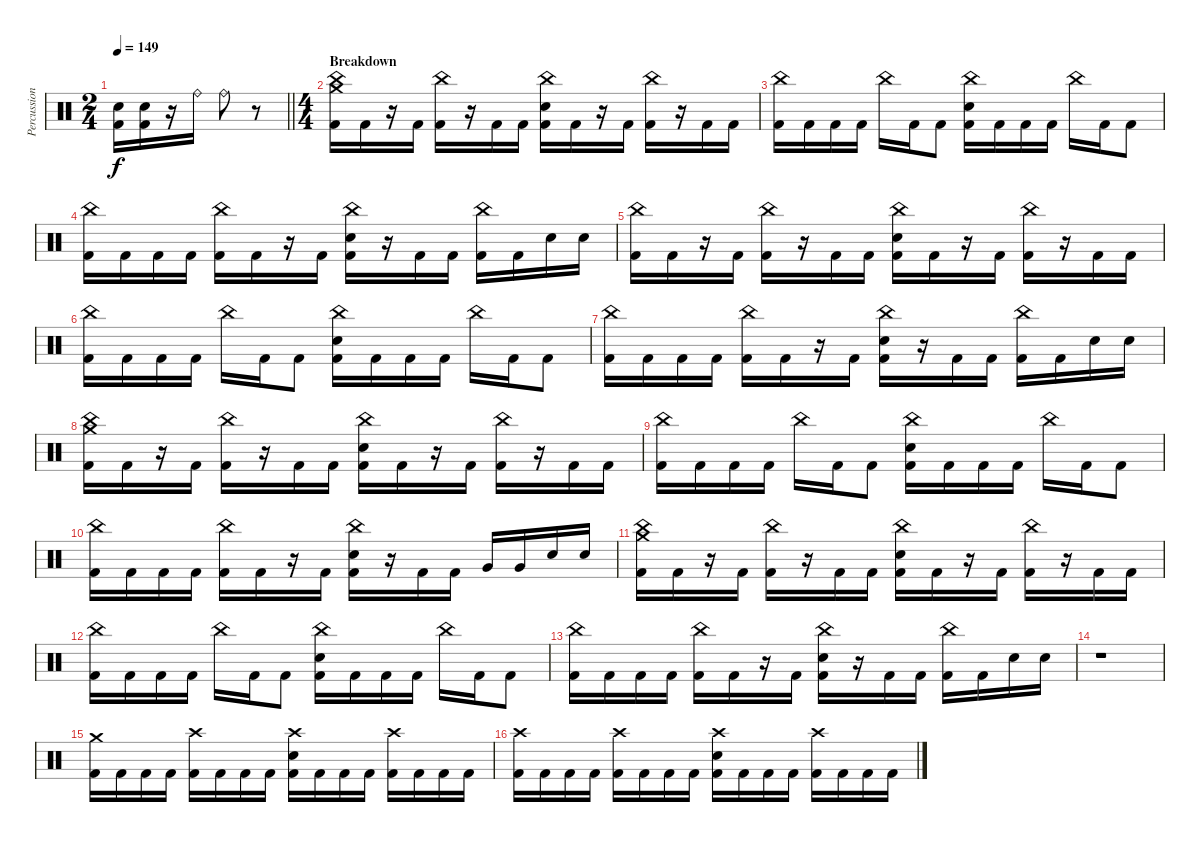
\track ("Percussions" "Percussion") {instrument percussion}
\staff {score}
\articulation defaults
\ts (2 4)
\tempo 149
\clef neutral
\barLineRight lightlight
\ks c
("Snare (hit) 2" "Kick (hit) 2").16{dy f} ("Snare (hit) 2" "Kick (hit) 2").16 r.16 "Ride (bell)".16 "Ride (bell)".8 r.8 |
\ts (4 4)
\section ("" "Breakdown")
("China (hit)" "Crash medium (hit)" "Kick (hit) 2").16 "Kick (hit) 2".16 r.16 "Kick (hit) 2".16 ("China (hit)" "Kick (hit) 2").16 r.16 "Kick (hit) 2".16 "Kick (hit) 2".16 ("China (hit)" "Snare (hit) 2" "Kick (hit) 2").16 "Kick (hit) 2".16 r.16 "Kick (hit) 2".16 ("China (hit)" "Kick (hit) 2").16 r.16 "Kick (hit) 2".16 "Kick (hit) 2".16 |
("China (hit)" "Kick (hit) 2").16 "Kick (hit) 2".16 "Kick (hit) 2".16 "Kick (hit) 2".16 "China (hit)".16 "Kick (hit) 2".16 "Kick (hit) 2".8 ("China (hit)" "Snare (hit) 2" "Kick (hit) 2").16 "Kick (hit) 2".16 "Kick (hit) 2".16 "Kick (hit) 2".16 "China (hit)".16 "Kick (hit) 2".16 "Kick (hit) 2".8 |
("China (hit)" "Kick (hit) 2").16 "Kick (hit) 2".16 "Kick (hit) 2".16 "Kick (hit) 2".16 ("China (hit)" "Kick (hit) 2").16 "Kick (hit) 2".16 r.16 "Kick (hit) 2".16 ("China (hit)" "Snare (hit) 2" "Kick (hit) 2").16 r.16 "Kick (hit) 2".16 "Kick (hit) 2".16 ("China (hit)" "Kick (hit) 2").16 "Kick (hit) 2".16 "Snare (hit) 2".16 "Snare (hit) 2".16 |
("China (hit)" "Kick (hit) 2").16 "Kick (hit) 2".16 r.16 "Kick (hit) 2".16 ("China (hit)" "Kick (hit) 2").16 r.16 "Kick (hit) 2".16 "Kick (hit) 2".16 ("China (hit)" "Snare (hit) 2" "Kick (hit) 2").16 "Kick (hit) 2".16 r.16 "Kick (hit) 2".16 ("China (hit)" "Kick (hit) 2").16 r.16 "Kick (hit) 2".16 "Kick (hit) 2".16 |
("China (hit)" "Kick (hit) 2").16 "Kick (hit) 2".16 "Kick (hit) 2".16 "Kick (hit) 2".16 "China (hit)".16 "Kick (hit) 2".16 "Kick (hit) 2".8 ("China (hit)" "Snare (hit) 2" "Kick (hit) 2").16 "Kick (hit) 2".16 "Kick (hit) 2".16 "Kick (hit) 2".16 "China (hit)".16 "Kick (hit) 2".16 "Kick (hit) 2".8 |
("China (hit)" "Kick (hit) 2").16 "Kick (hit) 2".16 "Kick (hit) 2".16 "Kick (hit) 2".16 ("China (hit)" "Kick (hit) 2").16 "Kick (hit) 2".16 r.16 "Kick (hit) 2".16 ("China (hit)" "Snare (hit) 2" "Kick (hit) 2").16 r.16 "Kick (hit) 2".16 "Kick (hit) 2".16 ("China (hit)" "Kick (hit) 2").16 "Kick (hit) 2".16 "Snare (hit) 2".16 "Snare (hit) 2".16 |
("China (hit)" "Crash medium (hit)" "Kick (hit) 2").16 "Kick (hit) 2".16 r.16 "Kick (hit) 2".16 ("China (hit)" "Kick (hit) 2").16 r.16 "Kick (hit) 2".16 "Kick (hit) 2".16 ("China (hit)" "Snare (hit) 2" "Kick (hit) 2").16 "Kick (hit) 2".16 r.16 "Kick (hit) 2".16 ("China (hit)" "Kick (hit) 2").16 r.16 "Kick (hit) 2".16 "Kick (hit) 2".16 |
("China (hit)" "Kick (hit) 2").16 "Kick (hit) 2".16 "Kick (hit) 2".16 "Kick (hit) 2".16 "China (hit)".16 "Kick (hit) 2".16 "Kick (hit) 2".8 ("China (hit)" "Snare (hit) 2" "Kick (hit) 2").16 "Kick (hit) 2".16 "Kick (hit) 2".16 "Kick (hit) 2".16 "China (hit)".16 "Kick (hit) 2".16 "Kick (hit) 2".8 |
("China (hit)" "Kick (hit) 2").16 "Kick (hit) 2".16 "Kick (hit) 2".16 "Kick (hit) 2".16 ("China (hit)" "Kick (hit) 2").16 "Kick (hit) 2".16 r.16 "Kick (hit) 2".16 ("China (hit)" "Snare (hit) 2" "Kick (hit) 2").16 r.16 "Kick (hit) 2".16 "Kick (hit) 2".16 "Very Low Tom (hit)".16 "Very Low Tom (hit)".16 "Snare (hit) 2".16 "Snare (hit) 2".16 |
("China (hit)" "Crash medium (hit)" "Kick (hit) 2").16 "Kick (hit) 2".16 r.16 "Kick (hit) 2".16 ("China (hit)" "Kick (hit) 2").16 r.16 "Kick (hit) 2".16 "Kick (hit) 2".16 ("China (hit)" "Snare (hit) 2" "Kick (hit) 2").16 "Kick (hit) 2".16 r.16 "Kick (hit) 2".16 ("China (hit)" "Kick (hit) 2").16 r.16 "Kick (hit) 2".16 "Kick (hit) 2".16 |
("China (hit)" "Kick (hit) 2").16 "Kick (hit) 2".16 "Kick (hit) 2".16 "Kick (hit) 2".16 "China (hit)".16 "Kick (hit) 2".16 "Kick (hit) 2".8 ("China (hit)" "Snare (hit) 2" "Kick (hit) 2").16 "Kick (hit) 2".16 "Kick (hit) 2".16 "Kick (hit) 2".16 "China (hit)".16 "Kick (hit) 2".16 "Kick (hit) 2".8 |
("China (hit)" "Kick (hit) 2").16 "Kick (hit) 2".16 "Kick (hit) 2".16 "Kick (hit) 2".16 ("China (hit)" "Kick (hit) 2").16 "Kick (hit) 2".16 r.16 "Kick (hit) 2".16 ("China (hit)" "Snare (hit) 2" "Kick (hit) 2").16 r.16 "Kick (hit) 2".16 "Kick (hit) 2".16 ("China (hit)" "Kick (hit) 2").16 "Kick (hit) 2".16 "Snare (hit) 2".16 "Snare (hit) 2".16 |
r.1 |
("Crash medium (hit)" "Kick (hit) 2").16 "Kick (hit) 2".16 "Kick (hit) 2".16 "Kick (hit) 2".16 ("Crash high (hit)" "Kick (hit) 2").16 "Kick (hit) 2".16 "Kick (hit) 2".16 "Kick (hit) 2".16 ("Crash high (hit)" "Snare (hit) 2" "Kick (hit) 2").16 "Kick (hit) 2".16 "Kick (hit) 2".16 "Kick (hit) 2".16 ("Crash high (hit)" "Kick (hit) 2").16 "Kick (hit) 2".16 "Kick (hit) 2".16 "Kick (hit) 2".16 |
("Crash high (hit)" "Kick (hit) 2").16 "Kick (hit) 2".16 "Kick (hit) 2".16 "Kick (hit) 2".16 ("Crash high (hit)" "Kick (hit) 2").16 "Kick (hit) 2".16 "Kick (hit) 2".16 "Kick (hit) 2".16 ("Crash high (hit)" "Snare (hit) 2" "Kick (hit) 2").16 "Kick (hit) 2".16 "Kick (hit) 2".16 "Kick (hit) 2".16 ("Crash high (hit)" "Kick (hit) 2").16 "Kick (hit) 2".16 "Kick (hit) 2".16 "Kick (hit) 2".16
